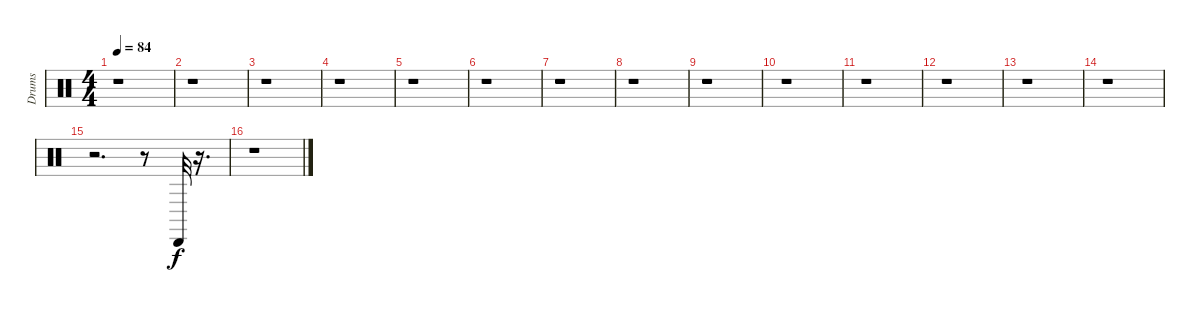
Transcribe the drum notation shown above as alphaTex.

\track ("Drums" "Drums") {instrument percussion}
\staff {score}
\articulation defaults
\ts (4 4)
\tempo 84
\clef neutral
\ks c
r.1{dy f} |
r.1 |
r.1 |
r.1 |
r.1 |
r.1 |
r.1 |
r.1 |
r.1 |
r.1 |
r.1 |
r.1 |
r.1 |
r.1 |
r.2{d} r.8 "Cabasa (hit)".32 r.16{d} |
r.1
